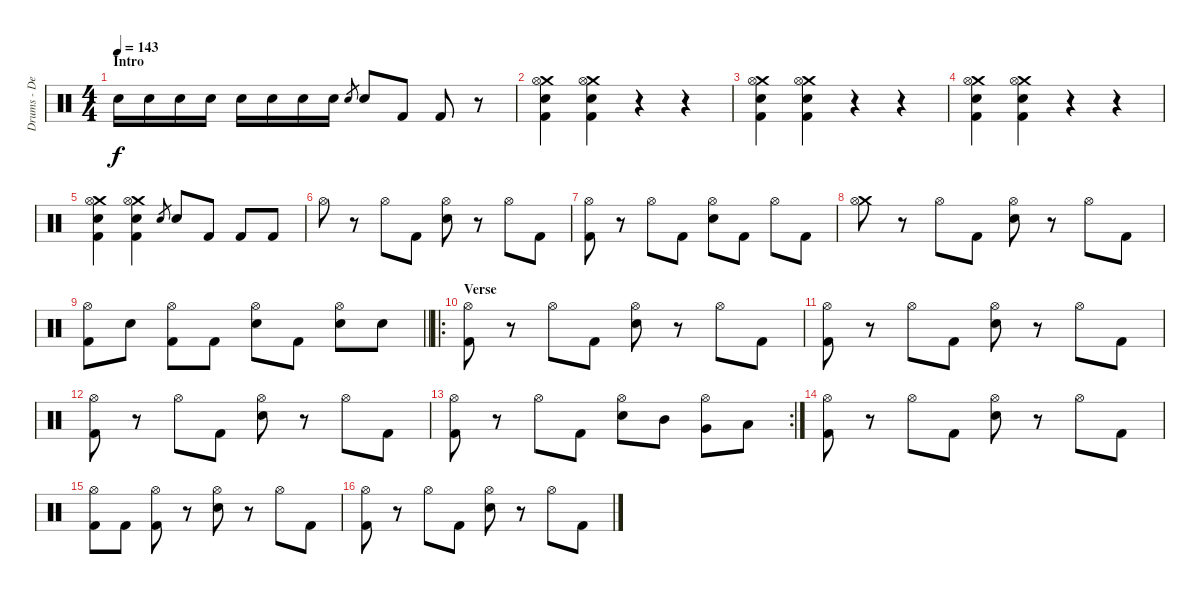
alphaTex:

\track ("Drums - Dennis Poschwatta" "Drums - De") {instrument percussion}
\staff {score}
\articulation defaults
\ts (4 4)
\section ("" "Intro")
\tempo 143
\clef neutral
\ks c "Electric Snare (hit)".16{dy f} "Electric Snare (hit)".16 "Electric Snare (hit)".16 "Electric Snare (hit)".16 "Electric Snare (hit)".16 "Electric Snare (hit)".16 "Electric Snare (hit)".16 "Electric Snare (hit)".16 "Electric Snare (hit)".8{gr} "Electric Snare (hit)".8 "Kick (hit) 2".8 "Kick (hit) 2".8
r.8 |
("Crash medium (hit)" "Hi-Hat (open)" "Electric Snare (hit)" "Kick (hit) 2").4 ("Crash medium (hit)" "Hi-Hat (open)" "Electric Snare (hit)" "Kick (hit) 2").4 r.4 r.4 |
("Crash medium (hit)" "Hi-Hat (open)" "Electric Snare (hit)" "Kick (hit) 2").4 ("Crash medium (hit)" "Hi-Hat (open)" "Electric Snare (hit)" "Kick (hit) 2").4 r.4 r.4 |
("Crash medium (hit)" "Hi-Hat (open)" "Electric Snare (hit)" "Kick (hit) 2").4 ("Crash medium (hit)" "Hi-Hat (open)" "Electric Snare (hit)" "Kick (hit) 2").4 r.4 r.4 |
("Crash medium (hit)" "Hi-Hat (open)" "Electric Snare (hit)" "Kick (hit) 2").4 ("Crash medium (hit)" "Hi-Hat (open)" "Electric Snare (hit)" "Kick (hit) 2").4 "Electric Snare (hit)".8{gr} "Electric Snare (hit)".8 "Kick (hit) 2".8 "Kick (hit) 2".8 "Kick (hit) 2".8 |
"Hi-Hat (open)".8 r.8 "Hi-Hat (open)".8 "Kick (hit) 2".8 ("Hi-Hat (open)" "Electric Snare (hit)").8 r.8 "Hi-Hat (open)".8 "Kick (hit) 2".8 |
("Hi-Hat (open)" "Kick (hit) 2").8 r.8 "Hi-Hat (open)".8 "Kick (hit) 2".8 ("Hi-Hat (open)" "Electric Snare (hit)").8 "Kick (hit) 2".8 "Hi-Hat (open)".8 "Kick (hit) 2".8 |
("Crash medium (hit)" "Hi-Hat (open)").8 r.8 "Hi-Hat (open)".8 "Kick (hit) 2".8 ("Hi-Hat (open)" "Electric Snare (hit)").8 r.8 "Hi-Hat (open)".8 "Kick (hit) 2".8 |
\barLineRight lightlight
("Hi-Hat (open)" "Kick (hit) 2").8 "Electric Snare (hit)".8 ("Hi-Hat (open)" "Kick (hit) 2").8 "Kick (hit) 2".8 ("Hi-Hat (open)" "Electric Snare (hit)").8 "Kick (hit) 2".8 ("Hi-Hat (open)" "Electric Snare (hit)").8 "Electric Snare (hit)".8 |
\ro
\section ("" "Verse")
("Hi-Hat (open)" "Kick (hit) 2").8 r.8 "Hi-Hat (open)".8 "Kick (hit) 2".8 ("Hi-Hat (open)" "Electric Snare (hit)").8 r.8 "Hi-Hat (open)".8 "Kick (hit) 2".8 |
("Hi-Hat (open)" "Kick (hit) 2").8 r.8 "Hi-Hat (open)".8 "Kick (hit) 2".8 ("Hi-Hat (open)" "Electric Snare (hit)").8 r.8 "Hi-Hat (open)".8 "Kick (hit) 2".8 |
("Hi-Hat (open)" "Kick (hit) 2").8 r.8 "Hi-Hat (open)".8 "Kick (hit) 2".8 ("Hi-Hat (open)" "Electric Snare (hit)").8 r.8 "Hi-Hat (open)".8 "Kick (hit) 2".8 |
\rc 2
("Hi-Hat (open)" "Kick (hit) 2").8 r.8 "Hi-Hat (open)".8 "Kick (hit) 2".8 ("Hi-Hat (open)" "Electric Snare (hit)").8 "Mid Tom (hit)".8 ("Hi-Hat (open)" "Very Low Tom (hit)").8 "Low Floor Tom (hit)".8 |
("Hi-Hat (open)" "Kick (hit) 2").8 r.8 "Hi-Hat (open)".8 "Kick (hit) 2".8 ("Hi-Hat (open)" "Electric Snare (hit)").8 r.8 "Hi-Hat (open)".8 "Kick (hit) 2".8 |
("Hi-Hat (open)" "Kick (hit) 2").8 "Kick (hit) 2".8 ("Hi-Hat (open)" "Kick (hit) 2").8 r.8 ("Hi-Hat (open)" "Electric Snare (hit)").8 r.8 "Hi-Hat (open)".8 "Kick (hit) 2".8 |
("Hi-Hat (open)" "Kick (hit) 2").8 r.8 "Hi-Hat (open)".8 "Kick (hit) 2".8 ("Hi-Hat (open)" "Electric Snare (hit)").8 r.8 "Hi-Hat (open)".8 "Kick (hit) 2".8
